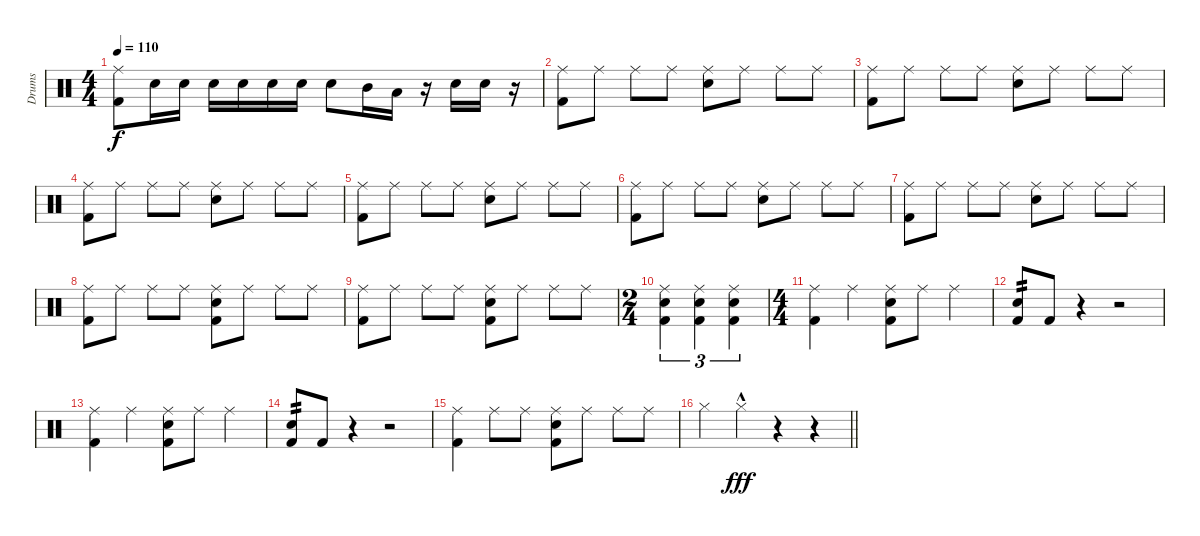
\track ("Drums" "Drums") {instrument percussion}
\staff {score}
\articulation defaults
\ts (4 4)
\tempo 110
\clef neutral
\ks c
("Ride (middle)" "Kick (hit) 2").8{dy f} "Snare (hit) 2".16 "Snare (hit) 2".16 "Snare (hit) 2".16 "Snare (hit) 2".16 "Snare (hit) 2".16 "Snare (hit) 2".16 "Snare (hit) 2".8 "Mid Tom (hit)".16 "Low Floor Tom (hit)".16 r.16 "Snare (hit) 2".16 "Snare (hit) 2".16 r.16 |
("Ride (middle)" "Kick (hit) 2").8 "Ride (middle)".8 "Ride (middle)".8 "Ride (middle)".8 ("Ride (middle)" "Snare (hit) 2").8 "Ride (middle)".8 "Ride (middle)".8 "Ride (middle)".8 |
("Ride (middle)" "Kick (hit) 2").8 "Ride (middle)".8 "Ride (middle)".8 "Ride (middle)".8 ("Ride (middle)" "Snare (hit) 2").8 "Ride (middle)".8 "Ride (middle)".8 "Ride (middle)".8 |
("Ride (middle)" "Kick (hit) 2").8 "Ride (middle)".8 "Ride (middle)".8 "Ride (middle)".8 ("Ride (middle)" "Snare (hit) 2").8 "Ride (middle)".8 "Ride (middle)".8 "Ride (middle)".8 |
("Ride (middle)" "Kick (hit) 2").8 "Ride (middle)".8 "Ride (middle)".8 "Ride (middle)".8 ("Ride (middle)" "Snare (hit) 2").8 "Ride (middle)".8 "Ride (middle)".8 "Ride (middle)".8 |
("Ride (middle)" "Kick (hit) 2").8 "Ride (middle)".8 "Ride (middle)".8 "Ride (middle)".8 ("Ride (middle)" "Snare (hit) 2").8 "Ride (middle)".8 "Ride (middle)".8 "Ride (middle)".8 |
("Ride (middle)" "Kick (hit) 2").8 "Ride (middle)".8 "Ride (middle)".8 "Ride (middle)".8 ("Ride (middle)" "Snare (hit) 2").8 "Ride (middle)".8 "Ride (middle)".8 "Ride (middle)".8 |
("Ride (middle)" "Kick (hit) 2").8 "Ride (middle)".8 "Ride (middle)".8 "Ride (middle)".8 ("Ride (middle)" "Snare (hit) 2" "Kick (hit) 2").8 "Ride (middle)".8 "Ride (middle)".8 "Ride (middle)".8 |
("Ride (middle)" "Kick (hit) 2").8 "Ride (middle)".8 "Ride (middle)".8 "Ride (middle)".8 ("Ride (middle)" "Snare (hit) 2" "Kick (hit) 2").8 "Ride (middle)".8 "Ride (middle)".8 "Ride (middle)".8 |
\ts (2 4)
("Ride (middle)" "Kick (hit) 2" "Snare (hit) 2").4{tu (3 2)} ("Ride (middle)" "Kick (hit) 2" "Snare (hit) 2").4{tu (3 2)} ("Ride (middle)" "Kick (hit) 2" "Snare (hit) 2").4{tu (3 2)} |
\ts (4 4)
("Ride (middle)" "Kick (hit) 2").4 "Ride (middle)".4 ("Ride (middle)" "Snare (hit) 2" "Kick (hit) 2").8 "Ride (middle)".8 "Ride (middle)".4 |
("Snare (hit) 2" "Kick (hit) 2").8{tp 2} "Kick (hit) 2".8 r.4 r.2 |
("Ride (middle)" "Kick (hit) 2").4 "Ride (middle)".4 ("Ride (middle)" "Snare (hit) 2" "Kick (hit) 2").8 "Ride (middle)".8 "Ride (middle)".4 |
("Snare (hit) 2" "Kick (hit) 2").8{tp 2} "Kick (hit) 2".8 r.4 r.2 |
("Ride (middle)" "Kick (hit) 2").4 "Ride (middle)".8 "Ride (middle)".8 ("Ride (middle)" "Snare (hit) 2" "Kick (hit) 2").8 "Ride (middle)".8 "Ride (middle)".8 "Ride (middle)".8 |
\barLineRight lightlight "Hi-Hat (closed)".4 "Hi-Hat (closed)"{hac}.4{dy fff}
r.4 r.4
